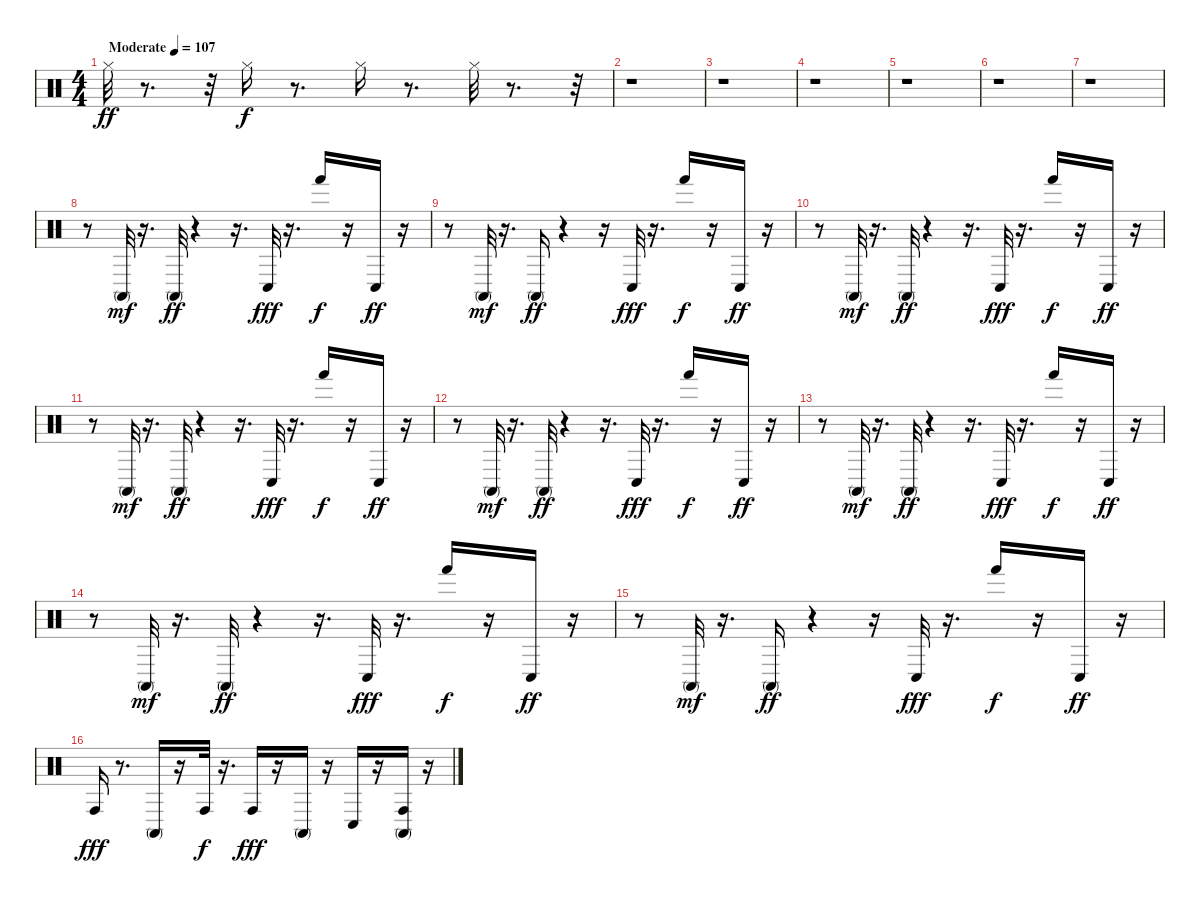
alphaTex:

\track "" {instrument percussion}
\staff {score}
\articulation defaults
\ts (4 4)
\tempo (107 "Moderate")
\clef neutral
\ks c "Hi-Hat (closed)".32{dy ff}
r.8{d} r.32 "Hi-Hat (closed)".16{dy f} r.8{d} "Hi-Hat (closed)".16 r.8{d} "Hi-Hat (closed)".32 r.8{d} r.32 |
r.1 |
r.1 |
r.1 |
r.1 |
r.1 |
r.1 |
r.8 "Conga high (mute)".32{dy mf} r.16{d} "Conga high (mute)".32{dy ff} r.4 r.16{d} "Conga low (hit)".32{dy fff} r.16{d} "Hand (hit)".16{dy f} r.16 "Conga low (hit)".16{dy ff} r.16 |
r.8 "Conga high (mute)".32{dy mf} r.16{d} "Conga high (mute)".16{dy ff} r.4 r.16 "Conga low (hit)".32{dy fff} r.16{d} "Hand (hit)".16{dy f} r.16 "Conga low (hit)".16{dy ff} r.16 |
r.8 "Conga high (mute)".32{dy mf} r.16{d} "Conga high (mute)".32{dy ff} r.4 r.16{d} "Conga low (hit)".32{dy fff} r.16{d} "Hand (hit)".16{dy f} r.16 "Conga low (hit)".16{dy ff} r.16 |
r.8 "Conga high (mute)".32{dy mf} r.16{d} "Conga high (mute)".32{dy ff} r.4 r.16{d} "Conga low (hit)".32{dy fff} r.16{d} "Hand (hit)".16{dy f} r.16 "Conga low (hit)".16{dy ff} r.16 |
r.8 "Conga high (mute)".32{dy mf} r.16{d} "Conga high (mute)".32{dy ff} r.4 r.16{d} "Conga low (hit)".32{dy fff} r.16{d} "Hand (hit)".16{dy f} r.16 "Conga low (hit)".16{dy ff} r.16 |
r.8 "Conga high (mute)".32{dy mf} r.16{d} "Conga high (mute)".32{dy ff} r.4 r.16{d} "Conga low (hit)".32{dy fff} r.16{d} "Hand (hit)".16{dy f} r.16 "Conga low (hit)".16{dy ff} r.16 |
r.8 "Conga high (mute)".32{dy mf} r.16{d} "Conga high (mute)".32{dy ff} r.4 r.16{d} "Conga low (hit)".32{dy fff} r.16{d} "Hand (hit)".16{dy f} r.16 "Conga low (hit)".16{dy ff} r.16 |
r.8 "Conga high (mute)".32{dy mf} r.16{d} "Conga high (mute)".16{dy ff} r.4 r.16 "Conga low (hit)".32{dy fff} r.16{d} "Hand (hit)".16{dy f} r.16 "Conga low (hit)".16{dy ff} r.16 |
"Conga high (hit)".16{dy fff} r.8{d} "Conga high (mute)".16 r.16 "Conga high (hit)".32{dy f} r.16{d} "Conga high (hit)".16{dy fff} r.16 "Conga high (mute)".16 r.16 "Conga low (hit)".16 r.16 ("Conga high (mute)" "Conga high (hit)").16 r.16
